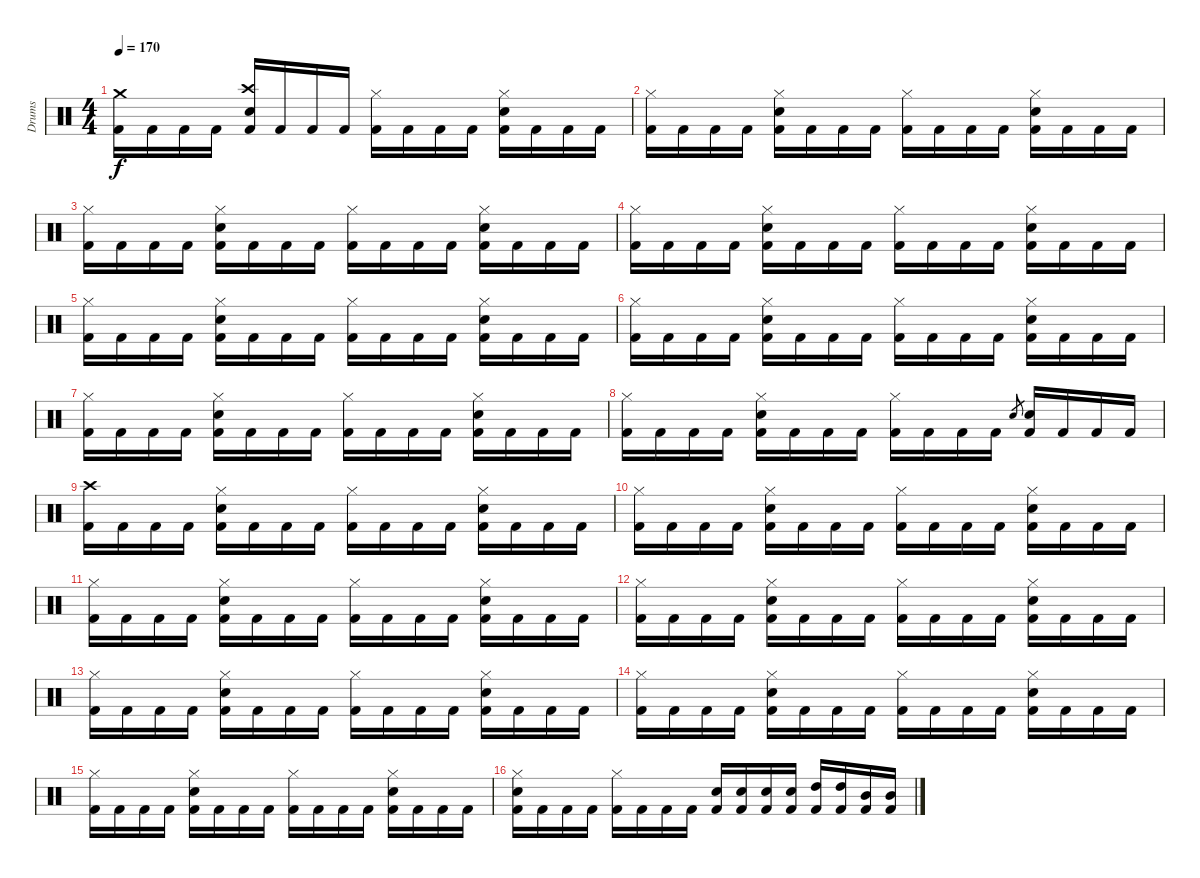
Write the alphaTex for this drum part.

\track ("Drums" "Drums") {instrument percussion}
\staff {score}
\articulation defaults
\ts (4 4)
\tempo 170
\clef neutral
\ks c
("Crash medium (hit)" "Kick (hit) 2").16{dy f} "Kick (hit) 2".16 "Kick (hit) 2".16 "Kick (hit) 2".16 ("Crash high (hit)" "Snare (hit) 2" "Kick (hit) 2").16 "Kick (hit) 2".16 "Kick (hit) 2".16 "Kick (hit) 2".16 ("Hi-Hat (closed)" "Kick (hit) 2").16 "Kick (hit) 2".16 "Kick (hit) 2".16 "Kick (hit) 2".16 ("Hi-Hat (closed)" "Snare (hit) 2" "Kick (hit) 2").16 "Kick (hit) 2".16 "Kick (hit) 2".16 "Kick (hit) 2".16 |
("Hi-Hat (closed)" "Kick (hit) 2").16 "Kick (hit) 2".16 "Kick (hit) 2".16 "Kick (hit) 2".16 ("Hi-Hat (closed)" "Snare (hit) 2" "Kick (hit) 2").16 "Kick (hit) 2".16 "Kick (hit) 2".16 "Kick (hit) 2".16 ("Hi-Hat (closed)" "Kick (hit) 2").16 "Kick (hit) 2".16 "Kick (hit) 2".16 "Kick (hit) 2".16 ("Hi-Hat (closed)" "Snare (hit) 2" "Kick (hit) 2").16 "Kick (hit) 2".16 "Kick (hit) 2".16 "Kick (hit) 2".16 |
("Hi-Hat (closed)" "Kick (hit) 2").16 "Kick (hit) 2".16 "Kick (hit) 2".16 "Kick (hit) 2".16 ("Hi-Hat (closed)" "Snare (hit) 2" "Kick (hit) 2").16 "Kick (hit) 2".16 "Kick (hit) 2".16 "Kick (hit) 2".16 ("Hi-Hat (closed)" "Kick (hit) 2").16 "Kick (hit) 2".16 "Kick (hit) 2".16 "Kick (hit) 2".16 ("Hi-Hat (closed)" "Snare (hit) 2" "Kick (hit) 2").16 "Kick (hit) 2".16 "Kick (hit) 2".16 "Kick (hit) 2".16 |
("Hi-Hat (closed)" "Kick (hit) 2").16 "Kick (hit) 2".16 "Kick (hit) 2".16 "Kick (hit) 2".16 ("Hi-Hat (closed)" "Snare (hit) 2" "Kick (hit) 2").16 "Kick (hit) 2".16 "Kick (hit) 2".16 "Kick (hit) 2".16 ("Hi-Hat (closed)" "Kick (hit) 2").16 "Kick (hit) 2".16 "Kick (hit) 2".16 "Kick (hit) 2".16 ("Hi-Hat (closed)" "Snare (hit) 2" "Kick (hit) 2").16 "Kick (hit) 2".16 "Kick (hit) 2".16 "Kick (hit) 2".16 |
("Hi-Hat (closed)" "Kick (hit) 2").16 "Kick (hit) 2".16 "Kick (hit) 2".16 "Kick (hit) 2".16 ("Hi-Hat (closed)" "Snare (hit) 2" "Kick (hit) 2").16 "Kick (hit) 2".16 "Kick (hit) 2".16 "Kick (hit) 2".16 ("Hi-Hat (closed)" "Kick (hit) 2").16 "Kick (hit) 2".16 "Kick (hit) 2".16 "Kick (hit) 2".16 ("Hi-Hat (closed)" "Snare (hit) 2" "Kick (hit) 2").16 "Kick (hit) 2".16 "Kick (hit) 2".16 "Kick (hit) 2".16 |
("Hi-Hat (closed)" "Kick (hit) 2").16 "Kick (hit) 2".16 "Kick (hit) 2".16 "Kick (hit) 2".16 ("Hi-Hat (closed)" "Snare (hit) 2" "Kick (hit) 2").16 "Kick (hit) 2".16 "Kick (hit) 2".16 "Kick (hit) 2".16 ("Hi-Hat (closed)" "Kick (hit) 2").16 "Kick (hit) 2".16 "Kick (hit) 2".16 "Kick (hit) 2".16 ("Hi-Hat (closed)" "Snare (hit) 2" "Kick (hit) 2").16 "Kick (hit) 2".16 "Kick (hit) 2".16 "Kick (hit) 2".16 |
("Hi-Hat (closed)" "Kick (hit) 2").16 "Kick (hit) 2".16 "Kick (hit) 2".16 "Kick (hit) 2".16 ("Hi-Hat (closed)" "Snare (hit) 2" "Kick (hit) 2").16 "Kick (hit) 2".16 "Kick (hit) 2".16 "Kick (hit) 2".16 ("Hi-Hat (closed)" "Kick (hit) 2").16 "Kick (hit) 2".16 "Kick (hit) 2".16 "Kick (hit) 2".16 ("Hi-Hat (closed)" "Snare (hit) 2" "Kick (hit) 2").16 "Kick (hit) 2".16 "Kick (hit) 2".16 "Kick (hit) 2".16 |
("Hi-Hat (closed)" "Kick (hit) 2").16 "Kick (hit) 2".16 "Kick (hit) 2".16 "Kick (hit) 2".16 ("Hi-Hat (closed)" "Snare (hit) 2" "Kick (hit) 2").16 "Kick (hit) 2".16 "Kick (hit) 2".16 "Kick (hit) 2".16 ("Hi-Hat (closed)" "Kick (hit) 2").16 "Kick (hit) 2".16 "Kick (hit) 2".16 "Kick (hit) 2".16 "Snare (hit) 2".8{gr} ("Snare (hit) 2" "Kick (hit) 2").16 "Kick (hit) 2".16 "Kick (hit) 2".16 "Kick (hit) 2".16 |
("Crash high (hit)" "Kick (hit) 2").16 "Kick (hit) 2".16 "Kick (hit) 2".16 "Kick (hit) 2".16 ("Hi-Hat (closed)" "Snare (hit) 2" "Kick (hit) 2").16 "Kick (hit) 2".16 "Kick (hit) 2".16 "Kick (hit) 2".16 ("Hi-Hat (closed)" "Kick (hit) 2").16 "Kick (hit) 2".16 "Kick (hit) 2".16 "Kick (hit) 2".16 ("Hi-Hat (closed)" "Snare (hit) 2" "Kick (hit) 2").16 "Kick (hit) 2".16 "Kick (hit) 2".16 "Kick (hit) 2".16 |
("Hi-Hat (closed)" "Kick (hit) 2").16 "Kick (hit) 2".16 "Kick (hit) 2".16 "Kick (hit) 2".16 ("Hi-Hat (closed)" "Snare (hit) 2" "Kick (hit) 2").16 "Kick (hit) 2".16 "Kick (hit) 2".16 "Kick (hit) 2".16 ("Hi-Hat (closed)" "Kick (hit) 2").16 "Kick (hit) 2".16 "Kick (hit) 2".16 "Kick (hit) 2".16 ("Hi-Hat (closed)" "Snare (hit) 2" "Kick (hit) 2").16 "Kick (hit) 2".16 "Kick (hit) 2".16 "Kick (hit) 2".16 |
("Hi-Hat (closed)" "Kick (hit) 2").16 "Kick (hit) 2".16 "Kick (hit) 2".16 "Kick (hit) 2".16 ("Hi-Hat (closed)" "Snare (hit) 2" "Kick (hit) 2").16 "Kick (hit) 2".16 "Kick (hit) 2".16 "Kick (hit) 2".16 ("Hi-Hat (closed)" "Kick (hit) 2").16 "Kick (hit) 2".16 "Kick (hit) 2".16 "Kick (hit) 2".16 ("Hi-Hat (closed)" "Snare (hit) 2" "Kick (hit) 2").16 "Kick (hit) 2".16 "Kick (hit) 2".16 "Kick (hit) 2".16 |
("Hi-Hat (closed)" "Kick (hit) 2").16 "Kick (hit) 2".16 "Kick (hit) 2".16 "Kick (hit) 2".16 ("Hi-Hat (closed)" "Snare (hit) 2" "Kick (hit) 2").16 "Kick (hit) 2".16 "Kick (hit) 2".16 "Kick (hit) 2".16 ("Hi-Hat (closed)" "Kick (hit) 2").16 "Kick (hit) 2".16 "Kick (hit) 2".16 "Kick (hit) 2".16 ("Hi-Hat (closed)" "Snare (hit) 2" "Kick (hit) 2").16 "Kick (hit) 2".16 "Kick (hit) 2".16 "Kick (hit) 2".16 |
("Hi-Hat (closed)" "Kick (hit) 2").16 "Kick (hit) 2".16 "Kick (hit) 2".16 "Kick (hit) 2".16 ("Hi-Hat (closed)" "Snare (hit) 2" "Kick (hit) 2").16 "Kick (hit) 2".16 "Kick (hit) 2".16 "Kick (hit) 2".16 ("Hi-Hat (closed)" "Kick (hit) 2").16 "Kick (hit) 2".16 "Kick (hit) 2".16 "Kick (hit) 2".16 ("Hi-Hat (closed)" "Snare (hit) 2" "Kick (hit) 2").16 "Kick (hit) 2".16 "Kick (hit) 2".16 "Kick (hit) 2".16 |
("Hi-Hat (closed)" "Kick (hit) 2").16 "Kick (hit) 2".16 "Kick (hit) 2".16 "Kick (hit) 2".16 ("Hi-Hat (closed)" "Snare (hit) 2" "Kick (hit) 2").16 "Kick (hit) 2".16 "Kick (hit) 2".16 "Kick (hit) 2".16 ("Hi-Hat (closed)" "Kick (hit) 2").16 "Kick (hit) 2".16 "Kick (hit) 2".16 "Kick (hit) 2".16 ("Hi-Hat (closed)" "Snare (hit) 2" "Kick (hit) 2").16 "Kick (hit) 2".16 "Kick (hit) 2".16 "Kick (hit) 2".16 |
("Hi-Hat (closed)" "Kick (hit) 2").16 "Kick (hit) 2".16 "Kick (hit) 2".16 "Kick (hit) 2".16 ("Hi-Hat (closed)" "Snare (hit) 2" "Kick (hit) 2").16 "Kick (hit) 2".16 "Kick (hit) 2".16 "Kick (hit) 2".16 ("Hi-Hat (closed)" "Kick (hit) 2").16 "Kick (hit) 2".16 "Kick (hit) 2".16 "Kick (hit) 2".16 ("Hi-Hat (closed)" "Snare (hit) 2" "Kick (hit) 2").16 "Kick (hit) 2".16 "Kick (hit) 2".16 "Kick (hit) 2".16 |
("Hi-Hat (closed)" "Snare (hit) 2" "Kick (hit) 2").16 "Kick (hit) 2".16 "Kick (hit) 2".16 "Kick (hit) 2".16 ("Hi-Hat (closed)" "Kick (hit) 2").16 "Kick (hit) 2".16 "Kick (hit) 2".16 "Kick (hit) 2".16 ("Snare (hit) 2" "Kick (hit) 2").16 ("Snare (hit) 2" "Kick (hit) 2").16 ("Snare (hit) 2" "Kick (hit) 2").16 ("Snare (hit) 2" "Kick (hit) 2").16 ("High Tom (hit)" "Kick (hit) 2").16 ("High Tom (hit)" "Kick (hit) 2").16 ("Mid Tom (hit)" "Kick (hit) 2").16 ("Mid Tom (hit)" "Kick (hit) 2").16
